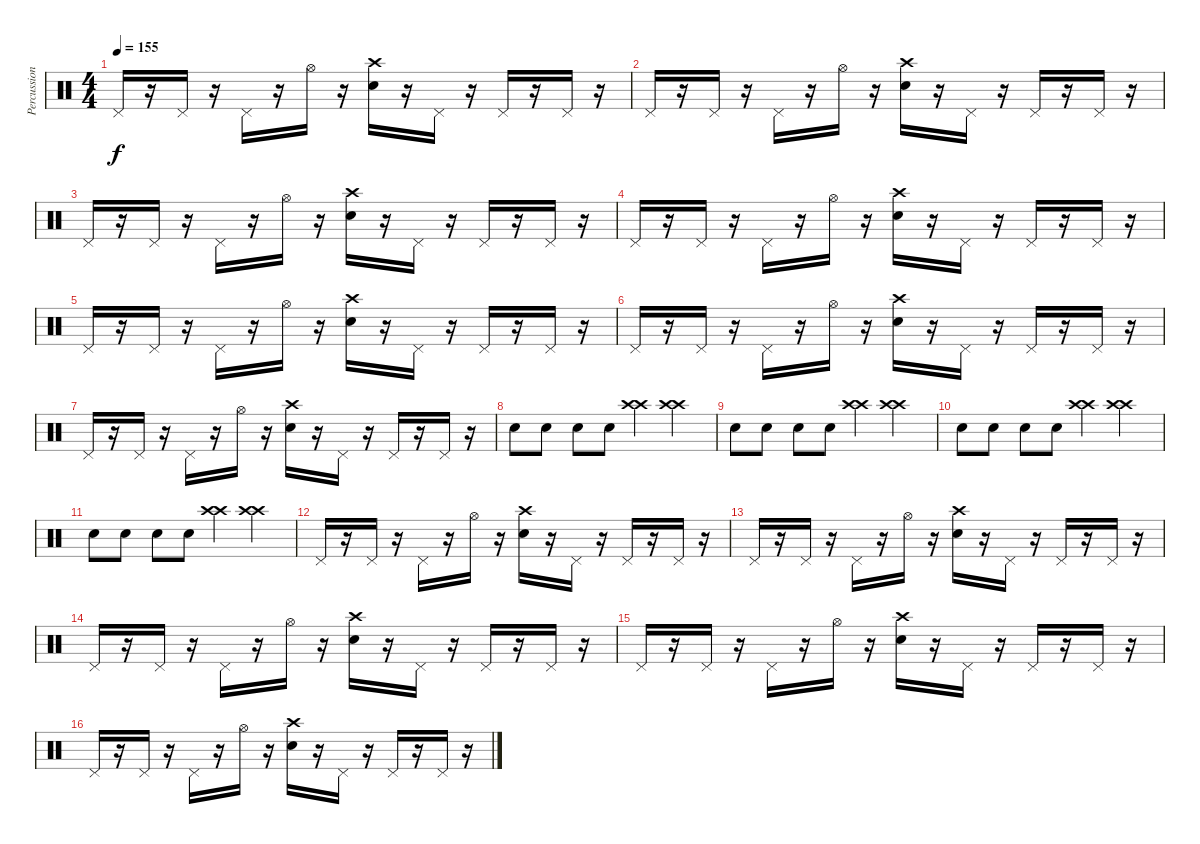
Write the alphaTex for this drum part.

\track ("Percussion" "Percussion") {instrument percussion}
\staff {score}
\articulation defaults
\ts (4 4)
\tempo 155
\clef neutral
\ks c "Pedal Hi-Hat (hit)".16{dy f}
r.16 "Pedal Hi-Hat (hit)".16 r.16 "Pedal Hi-Hat (hit)".16 r.16 "Hi-Hat (open)".16 r.16 ("Crash high (hit)" "Electric Snare (hit)").16 r.16 "Pedal Hi-Hat (hit)".16 r.16 "Pedal Hi-Hat (hit)".16 r.16 "Pedal Hi-Hat (hit)".16 r.16 |
"Pedal Hi-Hat (hit)".16 r.16 "Pedal Hi-Hat (hit)".16 r.16 "Pedal Hi-Hat (hit)".16 r.16 "Hi-Hat (open)".16 r.16 ("Crash high (hit)" "Electric Snare (hit)").16 r.16 "Pedal Hi-Hat (hit)".16 r.16 "Pedal Hi-Hat (hit)".16 r.16 "Pedal Hi-Hat (hit)".16 r.16 |
"Pedal Hi-Hat (hit)".16 r.16 "Pedal Hi-Hat (hit)".16 r.16 "Pedal Hi-Hat (hit)".16 r.16 "Hi-Hat (open)".16 r.16 ("Crash high (hit)" "Electric Snare (hit)").16 r.16 "Pedal Hi-Hat (hit)".16 r.16 "Pedal Hi-Hat (hit)".16 r.16 "Pedal Hi-Hat (hit)".16 r.16 |
"Pedal Hi-Hat (hit)".16 r.16 "Pedal Hi-Hat (hit)".16 r.16 "Pedal Hi-Hat (hit)".16 r.16 "Hi-Hat (open)".16 r.16 ("Crash high (hit)" "Electric Snare (hit)").16 r.16 "Pedal Hi-Hat (hit)".16 r.16 "Pedal Hi-Hat (hit)".16 r.16 "Pedal Hi-Hat (hit)".16 r.16 |
"Pedal Hi-Hat (hit)".16 r.16 "Pedal Hi-Hat (hit)".16 r.16 "Pedal Hi-Hat (hit)".16 r.16 "Hi-Hat (open)".16 r.16 ("Crash high (hit)" "Electric Snare (hit)").16 r.16 "Pedal Hi-Hat (hit)".16 r.16 "Pedal Hi-Hat (hit)".16 r.16 "Pedal Hi-Hat (hit)".16 r.16 |
"Pedal Hi-Hat (hit)".16 r.16 "Pedal Hi-Hat (hit)".16 r.16 "Pedal Hi-Hat (hit)".16 r.16 "Hi-Hat (open)".16 r.16 ("Crash high (hit)" "Electric Snare (hit)").16 r.16 "Pedal Hi-Hat (hit)".16 r.16 "Pedal Hi-Hat (hit)".16 r.16 "Pedal Hi-Hat (hit)".16 r.16 |
"Pedal Hi-Hat (hit)".16 r.16 "Pedal Hi-Hat (hit)".16 r.16 "Pedal Hi-Hat (hit)".16 r.16 "Hi-Hat (open)".16 r.16 ("Crash high (hit)" "Electric Snare (hit)").16 r.16 "Pedal Hi-Hat (hit)".16 r.16 "Pedal Hi-Hat (hit)".16 r.16 "Pedal Hi-Hat (hit)".16 r.16 |
"Electric Snare (hit)".8 "Electric Snare (hit)".8 "Electric Snare (hit)".8 "Electric Snare (hit)".8 ("Crash high (hit)" "Crash high (hit)").4 ("Crash high (hit)" "Crash high (hit)").4 |
"Electric Snare (hit)".8 "Electric Snare (hit)".8 "Electric Snare (hit)".8 "Electric Snare (hit)".8 ("Crash high (hit)" "Crash high (hit)").4 ("Crash high (hit)" "Crash high (hit)").4 |
"Electric Snare (hit)".8 "Electric Snare (hit)".8 "Electric Snare (hit)".8 "Electric Snare (hit)".8 ("Crash high (hit)" "Crash high (hit)").4 ("Crash high (hit)" "Crash high (hit)").4 |
"Electric Snare (hit)".8 "Electric Snare (hit)".8 "Electric Snare (hit)".8 "Electric Snare (hit)".8 ("Crash high (hit)" "Crash high (hit)").4 ("Crash high (hit)" "Crash high (hit)").4 |
"Pedal Hi-Hat (hit)".16 r.16 "Pedal Hi-Hat (hit)".16 r.16 "Pedal Hi-Hat (hit)".16 r.16 "Hi-Hat (open)".16 r.16 ("Crash high (hit)" "Electric Snare (hit)").16 r.16 "Pedal Hi-Hat (hit)".16 r.16 "Pedal Hi-Hat (hit)".16 r.16 "Pedal Hi-Hat (hit)".16 r.16 |
"Pedal Hi-Hat (hit)".16 r.16 "Pedal Hi-Hat (hit)".16 r.16 "Pedal Hi-Hat (hit)".16 r.16 "Hi-Hat (open)".16 r.16 ("Crash high (hit)" "Electric Snare (hit)").16 r.16 "Pedal Hi-Hat (hit)".16 r.16 "Pedal Hi-Hat (hit)".16 r.16 "Pedal Hi-Hat (hit)".16 r.16 |
"Pedal Hi-Hat (hit)".16 r.16 "Pedal Hi-Hat (hit)".16 r.16 "Pedal Hi-Hat (hit)".16 r.16 "Hi-Hat (open)".16 r.16 ("Crash high (hit)" "Electric Snare (hit)").16 r.16 "Pedal Hi-Hat (hit)".16 r.16 "Pedal Hi-Hat (hit)".16 r.16 "Pedal Hi-Hat (hit)".16 r.16 |
"Pedal Hi-Hat (hit)".16 r.16 "Pedal Hi-Hat (hit)".16 r.16 "Pedal Hi-Hat (hit)".16 r.16 "Hi-Hat (open)".16 r.16 ("Crash high (hit)" "Electric Snare (hit)").16 r.16 "Pedal Hi-Hat (hit)".16 r.16 "Pedal Hi-Hat (hit)".16 r.16 "Pedal Hi-Hat (hit)".16 r.16 |
"Pedal Hi-Hat (hit)".16 r.16 "Pedal Hi-Hat (hit)".16 r.16 "Pedal Hi-Hat (hit)".16 r.16 "Hi-Hat (open)".16 r.16 ("Crash high (hit)" "Electric Snare (hit)").16 r.16 "Pedal Hi-Hat (hit)".16 r.16 "Pedal Hi-Hat (hit)".16 r.16 "Pedal Hi-Hat (hit)".16 r.16
